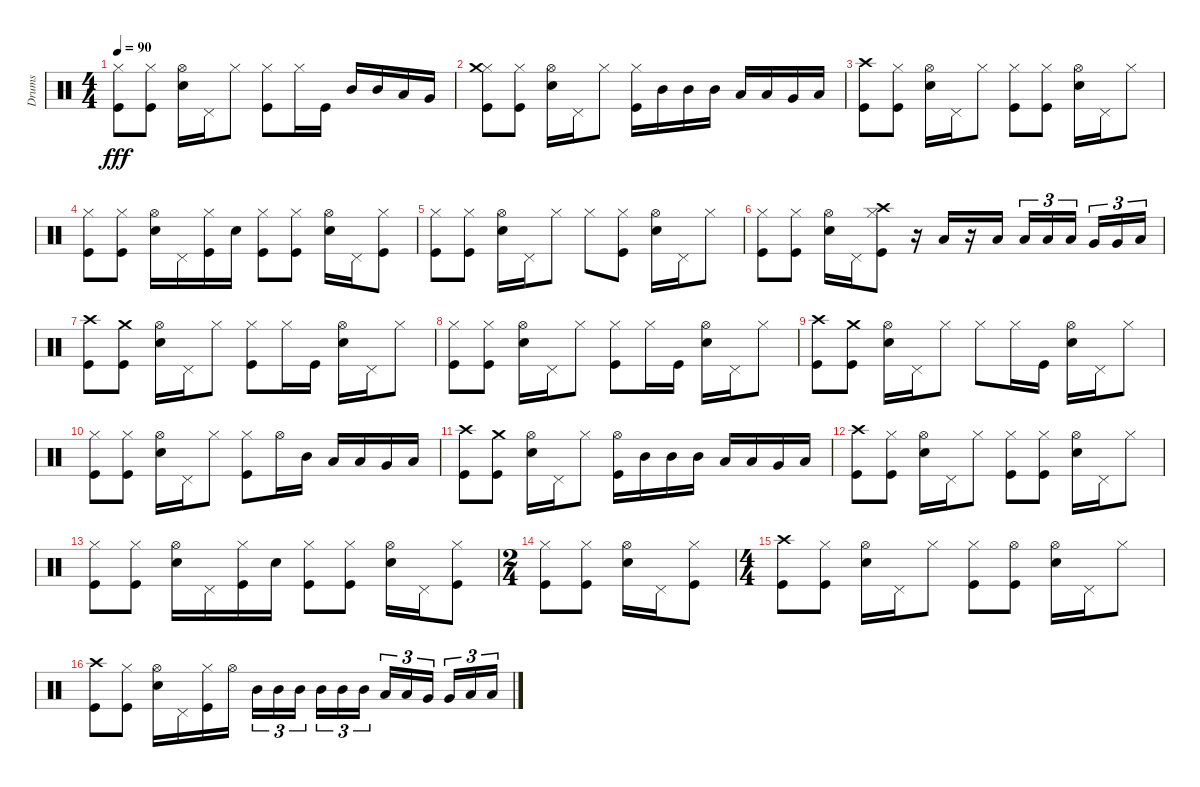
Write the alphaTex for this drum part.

\track ("Drums" "Drums") {instrument percussion}
\staff {score}
\articulation defaults
\ts (4 4)
\tempo 90
\clef neutral
\ks c
("Hi-Hat (closed)" "Kick (hit)").8{dy fff} ("Hi-Hat (closed)" "Kick (hit)").8 ("Hi-Hat (open)" "Snare (hit) 2").16 "Pedal Hi-Hat (hit)".16 "Hi-Hat (closed)".8 ("Hi-Hat (closed)" "Kick (hit)").8 "Hi-Hat (closed)".16 "Kick (hit)".16 "Mid Tom (hit)".16 "Mid Tom (hit)".16 "Low Tom (hit)".16 "Very Low Tom (hit)".16 |
("Hi-Hat (closed)" "Crash medium (hit)" "Kick (hit)").8 ("Hi-Hat (closed)" "Kick (hit)").8 ("Hi-Hat (open)" "Snare (hit) 2").16 "Pedal Hi-Hat (hit)".16 "Hi-Hat (closed)".8 ("Hi-Hat (closed)" "Kick (hit)").16 "Mid Tom (hit)".16 "Mid Tom (hit)".16 "Mid Tom (hit)".16 "Low Tom (hit)".16 "Low Tom (hit)".16 "Very Low Tom (hit)".16 "Low Floor Tom (hit)".16 |
("Crash high (hit)" "Kick (hit)").8 ("Hi-Hat (closed)" "Kick (hit)").8 ("Hi-Hat (open)" "Snare (hit) 2").16 "Pedal Hi-Hat (hit)".16 "Hi-Hat (closed)".8 ("Hi-Hat (closed)" "Kick (hit)").8 ("Hi-Hat (closed)" "Kick (hit)").8 ("Hi-Hat (open)" "Snare (hit) 2").16 "Pedal Hi-Hat (hit)".16 "Hi-Hat (closed)".8 |
("Hi-Hat (closed)" "Kick (hit)").8 ("Hi-Hat (closed)" "Kick (hit)").8 ("Hi-Hat (open)" "Snare (hit) 2").16 "Pedal Hi-Hat (hit)".16 ("Hi-Hat (closed)" "Kick (hit)").16 "Snare (hit) 2".16 ("Hi-Hat (closed)" "Kick (hit)").8 ("Hi-Hat (closed)" "Kick (hit)").8 ("Hi-Hat (open)" "Snare (hit) 2").16 "Pedal Hi-Hat (hit)".16 ("Hi-Hat (closed)" "Kick (hit)").8 |
("Hi-Hat (closed)" "Kick (hit)").8 ("Hi-Hat (closed)" "Kick (hit)").8 ("Hi-Hat (open)" "Snare (hit) 2").16 "Pedal Hi-Hat (hit)".16 "Hi-Hat (closed)".8 "Hi-Hat (closed)".8 ("Hi-Hat (closed)" "Kick (hit)").8 ("Hi-Hat (open)" "Snare (hit) 2").16 "Pedal Hi-Hat (hit)".16 "Hi-Hat (closed)".8 |
("Hi-Hat (closed)" "Kick (hit)").8 ("Hi-Hat (closed)" "Kick (hit)").8 ("Hi-Hat (open)" "Snare (hit) 2").16 "Pedal Hi-Hat (hit)".16 ("Hi-Hat (closed)" "Crash high (hit)" "Kick (hit)").8 r.16 "Low Tom (hit)".16 r.16 "Low Tom (hit)".16 "Low Tom (hit)".16{tu (3 2)} "Low Tom (hit)".16{tu (3 2)} "Low Tom (hit)".16{tu (3 2)} "Very Low Tom (hit)".16{tu (3 2)} "Very Low Tom (hit)".16{tu (3 2)} "Low Floor Tom (hit)".16{tu (3 2)} |
("Crash high (hit)" "Kick (hit)").8 ("Crash medium (hit)" "Kick (hit)").8 ("Hi-Hat (open)" "Snare (hit) 2").16 "Pedal Hi-Hat (hit)".16 "Hi-Hat (closed)".8 ("Hi-Hat (closed)" "Kick (hit)").8 "Hi-Hat (closed)".16 "Kick (hit)".16 ("Hi-Hat (open)" "Snare (hit) 2").16 "Pedal Hi-Hat (hit)".16 "Hi-Hat (closed)".8 |
("Hi-Hat (closed)" "Kick (hit)").8 ("Hi-Hat (closed)" "Kick (hit)").8 ("Hi-Hat (open)" "Snare (hit) 2").16 "Pedal Hi-Hat (hit)".16 "Hi-Hat (closed)".8 ("Hi-Hat (closed)" "Kick (hit)").8 "Hi-Hat (closed)".16 "Kick (hit)".16 ("Hi-Hat (open)" "Snare (hit) 2").16 "Pedal Hi-Hat (hit)".16 "Hi-Hat (closed)".8 |
("Crash high (hit)" "Kick (hit)").8 ("Crash medium (hit)" "Kick (hit)").8 ("Hi-Hat (open)" "Snare (hit) 2").16 "Pedal Hi-Hat (hit)".16 "Hi-Hat (closed)".8 "Hi-Hat (closed)".8 "Hi-Hat (closed)".16 "Kick (hit)".16 ("Hi-Hat (open)" "Snare (hit) 2").16 "Pedal Hi-Hat (hit)".16 "Hi-Hat (closed)".8 |
("Hi-Hat (closed)" "Kick (hit)").8 ("Hi-Hat (closed)" "Kick (hit)").8 ("Hi-Hat (open)" "Snare (hit) 2").16 "Pedal Hi-Hat (hit)".16 "Hi-Hat (closed)".8 ("Hi-Hat (closed)" "Kick (hit)").8 "Hi-Hat (open)".16 "Mid Tom (hit)".16 "Low Tom (hit)".16 "Low Tom (hit)".16 "Very Low Tom (hit)".16 "Low Floor Tom (hit)".16 |
("Crash high (hit)" "Kick (hit)").8 ("Crash medium (hit)" "Kick (hit)").8 ("Hi-Hat (open)" "Snare (hit) 2").16 "Pedal Hi-Hat (hit)".16 "Hi-Hat (closed)".8 ("Hi-Hat (open)" "Kick (hit)").16 "Mid Tom (hit)".16 "Mid Tom (hit)".16 "Mid Tom (hit)".16 "Low Tom (hit)".16 "Low Tom (hit)".16 "Very Low Tom (hit)".16 "Low Floor Tom (hit)".16 |
("Crash high (hit)" "Kick (hit)").8 ("Hi-Hat (closed)" "Kick (hit)").8 ("Hi-Hat (open)" "Snare (hit) 2").16 "Pedal Hi-Hat (hit)".16 "Hi-Hat (closed)".8 ("Hi-Hat (closed)" "Kick (hit)").8 ("Hi-Hat (closed)" "Kick (hit)").8 ("Hi-Hat (open)" "Snare (hit) 2").16 "Pedal Hi-Hat (hit)".16 "Hi-Hat (closed)".8 |
("Hi-Hat (closed)" "Kick (hit)").8 ("Hi-Hat (closed)" "Kick (hit)").8 ("Hi-Hat (open)" "Snare (hit) 2").16 "Pedal Hi-Hat (hit)".16 ("Hi-Hat (closed)" "Kick (hit)").16 "Snare (hit) 2".16 ("Hi-Hat (closed)" "Kick (hit)").8 ("Hi-Hat (closed)" "Kick (hit)").8 ("Hi-Hat (open)" "Snare (hit) 2").16 "Pedal Hi-Hat (hit)".16 ("Hi-Hat (closed)" "Kick (hit)").8 |
\ts (2 4)
("Hi-Hat (closed)" "Kick (hit)").8 ("Hi-Hat (closed)" "Kick (hit)").8 ("Hi-Hat (open)" "Snare (hit) 2").16 "Pedal Hi-Hat (hit)".16 ("Hi-Hat (closed)" "Kick (hit)").8 |
\ts (4 4)
("Crash high (hit)" "Kick (hit)").8 ("Hi-Hat (closed)" "Kick (hit)").8 ("Hi-Hat (open)" "Snare (hit) 2").16 "Pedal Hi-Hat (hit)".16 "Hi-Hat (closed)".8 ("Hi-Hat (closed)" "Kick (hit)").8 ("Hi-Hat (open)" "Kick (hit)").8 ("Hi-Hat (open)" "Snare (hit) 2").16 "Pedal Hi-Hat (hit)".16 "Hi-Hat (closed)".8 |
("Crash high (hit)" "Kick (hit)").8 ("Hi-Hat (closed)" "Kick (hit)").8 ("Hi-Hat (open)" "Snare (hit) 2").16 "Pedal Hi-Hat (hit)".16 ("Hi-Hat (closed)" "Kick (hit)").16 "Hi-Hat (open)".16 "Mid Tom (hit)".16{tu (3 2)} "Mid Tom (hit)".16{tu (3 2)} "Mid Tom (hit)".16{tu (3 2)} "Mid Tom (hit)".16{tu (3 2)} "Mid Tom (hit)".16{tu (3 2)} "Mid Tom (hit)".16{tu (3 2)} "Low Tom (hit)".16{tu (3 2)} "Low Tom (hit)".16{tu (3 2)} "Very Low Tom (hit)".16{tu (3 2)} "Very Low Tom (hit)".16{tu (3 2)} "Low Floor Tom (hit)".16{tu (3 2)} "Low Floor Tom (hit)".16{tu (3 2)}
